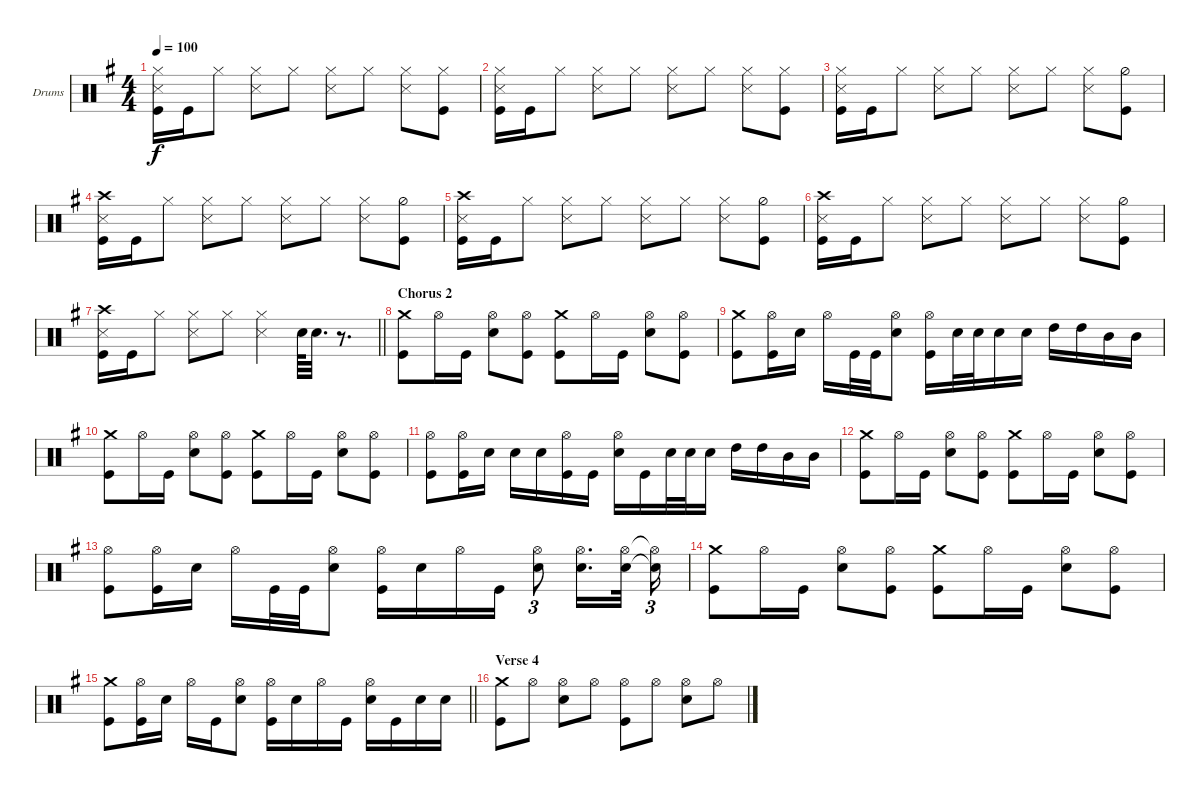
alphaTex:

\bracketExtendMode groupsimilarinstruments
\firstSystemTrackNameOrientation horizontal
\otherSystemsTrackNameOrientation horizontal
\track ("drums (Anton Zulganov)" "Drums") {instrument percussion}
\staff {score}
\articulation defaults
\ts (4 4)
\tempo 100
\clef neutral
\ks eminor
("Hi-Hat (closed)" "Kick (hit)" "Snare (side stick) 3").16{dy f} "Kick (hit)".16 "Hi-Hat (closed)".8 ("Hi-Hat (closed)" "Snare (side stick) 3").8 "Hi-Hat (closed)".8 ("Hi-Hat (closed)" "Snare (side stick) 3").8 "Hi-Hat (closed)".8 ("Snare (side stick) 3" "Hi-Hat (closed)").8 ("Kick (hit)" "Hi-Hat (closed)").8 |
("Hi-Hat (closed)" "Kick (hit)" "Snare (side stick) 3").16 "Kick (hit)".16 "Hi-Hat (closed)".8 ("Hi-Hat (closed)" "Snare (side stick) 3").8 "Hi-Hat (closed)".8 ("Hi-Hat (closed)" "Snare (side stick) 3").8 "Hi-Hat (closed)".8 ("Snare (side stick) 3" "Hi-Hat (closed)").8 ("Kick (hit)" "Hi-Hat (closed)").8 |
("Hi-Hat (closed)" "Kick (hit)" "Snare (side stick) 3").16 "Kick (hit)".16 "Hi-Hat (closed)".8 ("Hi-Hat (closed)" "Snare (side stick) 3").8 "Hi-Hat (closed)".8 ("Hi-Hat (closed)" "Snare (side stick) 3").8 "Hi-Hat (closed)".8 ("Snare (side stick) 3" "Hi-Hat (closed)").8 ("Kick (hit)" "Hi-Hat (half)").8 |
("Kick (hit)" "Snare (side stick) 3" "Crash high (hit)").16 "Kick (hit)".16 "Hi-Hat (closed)".8 ("Hi-Hat (closed)" "Snare (side stick) 3").8 "Hi-Hat (closed)".8 ("Hi-Hat (closed)" "Snare (side stick) 3").8 "Hi-Hat (closed)".8 ("Snare (side stick) 3" "Hi-Hat (closed)").8 ("Kick (hit)" "Hi-Hat (half)").8 |
("Kick (hit)" "Snare (side stick) 3" "Crash high (hit)").16 "Kick (hit)".16 "Hi-Hat (closed)".8 ("Hi-Hat (closed)" "Snare (side stick) 3").8 "Hi-Hat (closed)".8 ("Hi-Hat (closed)" "Snare (side stick) 3").8 "Hi-Hat (closed)".8 ("Snare (side stick) 3" "Hi-Hat (closed)").8 ("Kick (hit)" "Hi-Hat (half)").8 |
("Kick (hit)" "Snare (side stick) 3" "Crash high (hit)").16 "Kick (hit)".16 "Hi-Hat (closed)".8 ("Hi-Hat (closed)" "Snare (side stick) 3").8 "Hi-Hat (closed)".8 ("Hi-Hat (closed)" "Snare (side stick) 3").8 "Hi-Hat (closed)".8 ("Snare (side stick) 3" "Hi-Hat (closed)").8 ("Kick (hit)" "Hi-Hat (half)").8 |
\barLineRight lightlight
("Kick (hit)" "Snare (side stick) 3" "Crash high (hit)").16 "Kick (hit)".16 "Hi-Hat (closed)".8 ("Hi-Hat (closed)" "Snare (side stick) 3").8 "Hi-Hat (closed)".8 ("Hi-Hat (closed)" "Snare (side stick) 3").4 "Snare (hit) 2".64 "Snare (hit) 2".32{d} r.8{d} |
\section ("" "Chorus 2")
("Crash medium (hit)" "Kick (hit)").8 "Hi-Hat (open)".16 "Kick (hit)".16 ("Hi-Hat (open)" "Snare (hit) 2").8 ("Hi-Hat (open)" "Kick (hit)").8 ("Crash medium (hit)" "Kick (hit)").8 "Hi-Hat (open)".16 "Kick (hit)".16 ("Snare (hit) 2" "Hi-Hat (open)").8 ("Kick (hit)" "Hi-Hat (open)").8 |
("Kick (hit)" "Crash medium (hit)").8 ("Hi-Hat (open)" "Kick (hit)").16 "Snare (hit) 2".16 "Hi-Hat (open)".16 "Kick (hit)".32 "Kick (hit)".32 ("Hi-Hat (open)" "Snare (hit) 2").8 ("Hi-Hat (open)" "Kick (hit)").16 "Snare (hit) 2".32 "Snare (hit) 2".32 "Snare (hit) 2".16 "Snare (hit) 2".16 "High Tom (hit)".16 "High Tom (hit)".16 "Mid Tom (hit)".16 "Mid Tom (hit)".16 |
("Crash medium (hit)" "Kick (hit)").8 "Hi-Hat (open)".16 "Kick (hit)".16 ("Hi-Hat (open)" "Snare (hit) 2").8 ("Hi-Hat (open)" "Kick (hit)").8 ("Crash medium (hit)" "Kick (hit)").8 "Hi-Hat (open)".16 "Kick (hit)".16 ("Snare (hit) 2" "Hi-Hat (open)").8 ("Kick (hit)" "Hi-Hat (open)").8 |
("Kick (hit)" "Hi-Hat (open)").8 ("Hi-Hat (open)" "Kick (hit)").16 "Snare (hit) 2".16 "Snare (hit) 2".16 "Snare (hit) 2".16 ("Kick (hit)" "Hi-Hat (open)").16 "Kick (hit)".16 ("Snare (hit) 2" "Hi-Hat (open)").16 "Kick (hit)".16 "Snare (hit) 2".32 "Snare (hit) 2".32 "Snare (hit) 2".16 "High Tom (hit)".16 "High Tom (hit)".16 "Mid Tom (hit)".16 "Mid Tom (hit)".16 |
("Crash medium (hit)" "Kick (hit)").8 "Hi-Hat (open)".16 "Kick (hit)".16 ("Hi-Hat (open)" "Snare (hit) 2").8 ("Hi-Hat (open)" "Kick (hit)").8 ("Crash medium (hit)" "Kick (hit)").8 "Hi-Hat (open)".16 "Kick (hit)".16 ("Snare (hit) 2" "Hi-Hat (open)").8 ("Kick (hit)" "Hi-Hat (open)").8 |
("Hi-Hat (open)" "Kick (hit)").8 ("Hi-Hat (open)" "Kick (hit)").16 "Snare (hit) 2".16 "Hi-Hat (open)".16 "Kick (hit)".32 "Kick (hit)".32 ("Hi-Hat (open)" "Snare (hit) 2").8 ("Hi-Hat (open)" "Kick (hit)").16 "Snare (hit) 2".16 "Hi-Hat (open)".16 "Kick (hit)".16 ("Snare (hit) 2" "Hi-Hat (open)").8{tu (3 2)} ("Snare (hit) 2" "Hi-Hat (open)").16{d} ("Snare (hit) 2" "Hi-Hat (open)").32 ("Snare (hit) 2"{t} "Hi-Hat (open)"{t}).16{tu (3 2)} |
("Crash medium (hit)" "Kick (hit)").8 "Hi-Hat (open)".16 "Kick (hit)".16 ("Hi-Hat (open)" "Snare (hit) 2").8 ("Hi-Hat (open)" "Kick (hit)").8 ("Crash medium (hit)" "Kick (hit)").8 "Hi-Hat (open)".16 "Kick (hit)".16 ("Snare (hit) 2" "Hi-Hat (open)").8 ("Kick (hit)" "Hi-Hat (open)").8 |
\barLineRight lightlight
("Crash medium (hit)" "Kick (hit)").8 ("Hi-Hat (open)" "Kick (hit)").16 "Snare (hit) 2".16 "Hi-Hat (open)".16 "Kick (hit)".16 ("Hi-Hat (open)" "Snare (hit) 2").8 ("Hi-Hat (open)" "Kick (hit)").16 "Snare (hit) 2".16 "Hi-Hat (open)".16 "Kick (hit)".16 ("Snare (hit) 2" "Hi-Hat (open)").16 "Kick (hit)".16 "Snare (hit) 2".16 "Snare (hit) 2".16 |
\section ("" "Verse 4")
("Crash medium (hit)" "Kick (hit)").8 "Hi-Hat (open)".8 ("Hi-Hat (open)" "Snare (hit) 2").8 "Hi-Hat (open)".8 ("Hi-Hat (open)" "Kick (hit)").8 "Hi-Hat (open)".8 ("Hi-Hat (open)" "Snare (hit) 2").8 "Hi-Hat (open)".8
